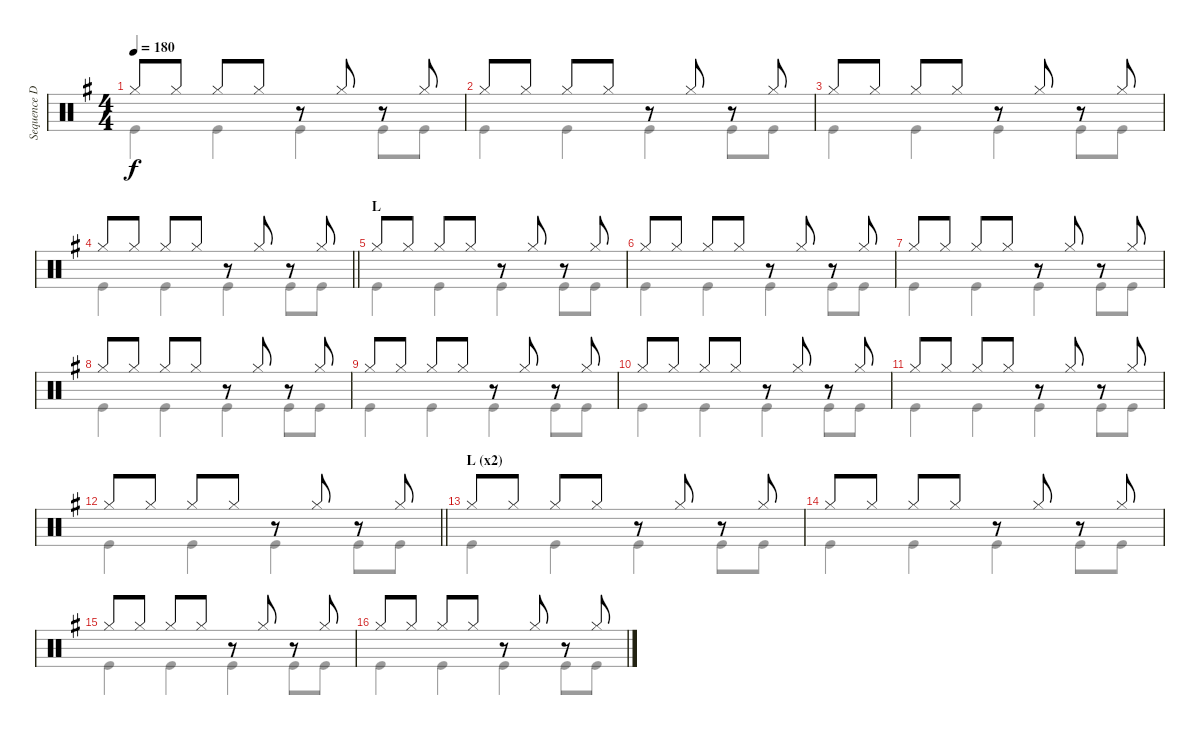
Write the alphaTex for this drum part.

\track ("Sequence Drums" "Sequence D") {instrument percussion}
\staff {score}
\articulation defaults
\voice
\ts (4 4)
\tempo 180
\clef neutral
\ks g "Hi-Hat (closed)".8{dy f} "Hi-Hat (closed)".8 "Hi-Hat (closed)".8 "Hi-Hat (closed)".8
r.8 "Hi-Hat (closed)".8 r.8 "Hi-Hat (closed)".8 |
"Hi-Hat (closed)".8 "Hi-Hat (closed)".8 "Hi-Hat (closed)".8 "Hi-Hat (closed)".8 r.8 "Hi-Hat (closed)".8 r.8 "Hi-Hat (closed)".8 |
"Hi-Hat (closed)".8 "Hi-Hat (closed)".8 "Hi-Hat (closed)".8 "Hi-Hat (closed)".8 r.8 "Hi-Hat (closed)".8 r.8 "Hi-Hat (closed)".8 |
\barLineRight lightlight "Hi-Hat (closed)".8 "Hi-Hat (closed)".8 "Hi-Hat (closed)".8 "Hi-Hat (closed)".8
r.8 "Hi-Hat (closed)".8 r.8 "Hi-Hat (closed)".8 |
\section ("" "L")
"Hi-Hat (closed)".8 "Hi-Hat (closed)".8 "Hi-Hat (closed)".8 "Hi-Hat (closed)".8 r.8 "Hi-Hat (closed)".8 r.8 "Hi-Hat (closed)".8 |
"Hi-Hat (closed)".8 "Hi-Hat (closed)".8 "Hi-Hat (closed)".8 "Hi-Hat (closed)".8 r.8 "Hi-Hat (closed)".8 r.8 "Hi-Hat (closed)".8 |
"Hi-Hat (closed)".8 "Hi-Hat (closed)".8 "Hi-Hat (closed)".8 "Hi-Hat (closed)".8 r.8 "Hi-Hat (closed)".8 r.8 "Hi-Hat (closed)".8 |
"Hi-Hat (closed)".8 "Hi-Hat (closed)".8 "Hi-Hat (closed)".8 "Hi-Hat (closed)".8 r.8 "Hi-Hat (closed)".8 r.8 "Hi-Hat (closed)".8 |
"Hi-Hat (closed)".8 "Hi-Hat (closed)".8 "Hi-Hat (closed)".8 "Hi-Hat (closed)".8 r.8 "Hi-Hat (closed)".8 r.8 "Hi-Hat (closed)".8 |
"Hi-Hat (closed)".8 "Hi-Hat (closed)".8 "Hi-Hat (closed)".8 "Hi-Hat (closed)".8 r.8 "Hi-Hat (closed)".8 r.8 "Hi-Hat (closed)".8 |
"Hi-Hat (closed)".8 "Hi-Hat (closed)".8 "Hi-Hat (closed)".8 "Hi-Hat (closed)".8 r.8 "Hi-Hat (closed)".8 r.8 "Hi-Hat (closed)".8 |
\barLineRight lightlight "Hi-Hat (closed)".8 "Hi-Hat (closed)".8 "Hi-Hat (closed)".8 "Hi-Hat (closed)".8
r.8 "Hi-Hat (closed)".8 r.8 "Hi-Hat (closed)".8 |
\section ("" "L (x2)")
"Hi-Hat (closed)".8 "Hi-Hat (closed)".8 "Hi-Hat (closed)".8 "Hi-Hat (closed)".8 r.8 "Hi-Hat (closed)".8 r.8 "Hi-Hat (closed)".8 |
"Hi-Hat (closed)".8 "Hi-Hat (closed)".8 "Hi-Hat (closed)".8 "Hi-Hat (closed)".8 r.8 "Hi-Hat (closed)".8 r.8 "Hi-Hat (closed)".8 |
"Hi-Hat (closed)".8 "Hi-Hat (closed)".8 "Hi-Hat (closed)".8 "Hi-Hat (closed)".8 r.8 "Hi-Hat (closed)".8 r.8 "Hi-Hat (closed)".8 |
"Hi-Hat (closed)".8 "Hi-Hat (closed)".8 "Hi-Hat (closed)".8 "Hi-Hat (closed)".8 r.8 "Hi-Hat (closed)".8 r.8 "Hi-Hat (closed)".8
\voice
\clef neutral
\ottava regular
\simile none
\ks g "Kick (hit)".4{dy f} "Kick (hit)".4 "Kick (hit)".4 "Kick (hit)".8 "Kick (hit)".8
|
"Kick (hit)".4 "Kick (hit)".4 "Kick (hit)".4 "Kick (hit)".8 "Kick (hit)".8 |
"Kick (hit)".4 "Kick (hit)".4 "Kick (hit)".4 "Kick (hit)".8 "Kick (hit)".8 |
\barLineRight lightlight "Kick (hit)".4 "Kick (hit)".4 "Kick (hit)".4 "Kick (hit)".8 "Kick (hit)".8
|
"Kick (hit)".4 "Kick (hit)".4 "Kick (hit)".4 "Kick (hit)".8 "Kick (hit)".8 |
"Kick (hit)".4 "Kick (hit)".4 "Kick (hit)".4 "Kick (hit)".8 "Kick (hit)".8 |
"Kick (hit)".4 "Kick (hit)".4 "Kick (hit)".4 "Kick (hit)".8 "Kick (hit)".8 |
"Kick (hit)".4 "Kick (hit)".4 "Kick (hit)".4 "Kick (hit)".8 "Kick (hit)".8 |
"Kick (hit)".4 "Kick (hit)".4 "Kick (hit)".4 "Kick (hit)".8 "Kick (hit)".8 |
"Kick (hit)".4 "Kick (hit)".4 "Kick (hit)".4 "Kick (hit)".8 "Kick (hit)".8 |
"Kick (hit)".4 "Kick (hit)".4 "Kick (hit)".4 "Kick (hit)".8 "Kick (hit)".8 |
\barLineRight lightlight "Kick (hit)".4 "Kick (hit)".4 "Kick (hit)".4 "Kick (hit)".8 "Kick (hit)".8
|
"Kick (hit)".4 "Kick (hit)".4 "Kick (hit)".4 "Kick (hit)".8 "Kick (hit)".8 |
"Kick (hit)".4 "Kick (hit)".4 "Kick (hit)".4 "Kick (hit)".8 "Kick (hit)".8 |
"Kick (hit)".4 "Kick (hit)".4 "Kick (hit)".4 "Kick (hit)".8 "Kick (hit)".8 |
"Kick (hit)".4 "Kick (hit)".4 "Kick (hit)".4 "Kick (hit)".8 "Kick (hit)".8
